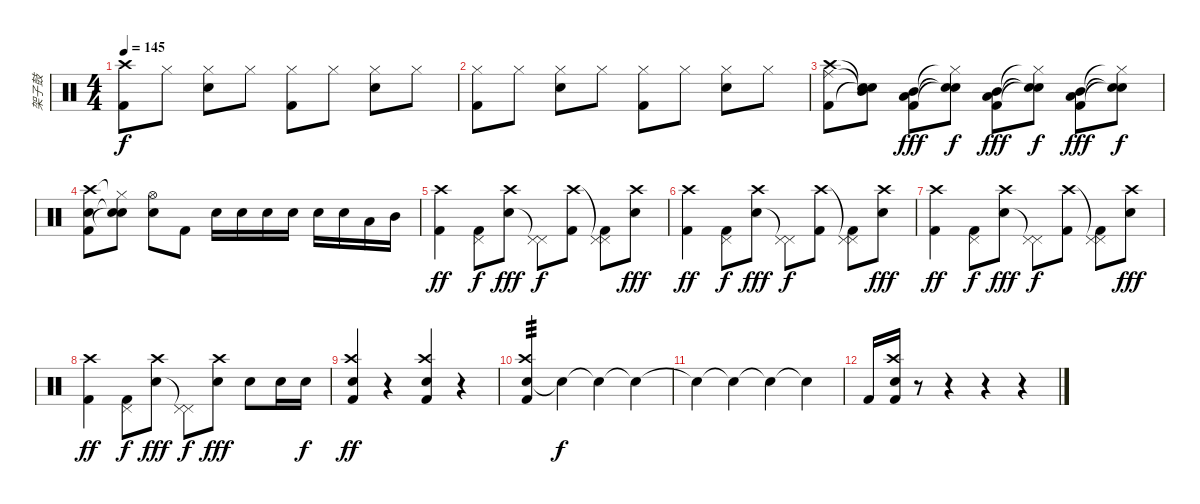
\track ("架子鼓" "架子鼓") {instrument percussion}
\staff {score}
\articulation defaults
\ts (4 4)
\tempo 145
\clef neutral
\ks c
("Kick (hit) 2" "Crash high (hit)").8{dy f} "Hi-Hat (closed)".8 ("Snare (hit) 2" "Hi-Hat (closed)").8 "Hi-Hat (closed)".8 ("Kick (hit) 2" "Hi-Hat (closed)").8 "Hi-Hat (closed)".8 ("Snare (hit) 2" "Hi-Hat (closed)").8 "Hi-Hat (closed)".8 |
("Kick (hit) 2" "Hi-Hat (closed)").8 "Hi-Hat (closed)".8 ("Snare (hit) 2" "Hi-Hat (closed)").8 "Hi-Hat (closed)".8 ("Kick (hit) 2" "Hi-Hat (closed)").8 "Hi-Hat (closed)".8 ("Snare (hit) 2" "Hi-Hat (closed)").8 "Hi-Hat (closed)".8 |
("Kick (hit) 2" "Ride (middle)" "Crash high (hit)").8 ("Snare (hit)"{t} "Mid Tom (hit)"{t} "Snare (hit)"{t}).8 ("Kick (hit) 2" "Mid Tom (hit)" "Low Tom (hit)").8{dy fff} ("Snare (hit)"{t} "Hi-Hat (closed)"{t} "Snare (hit)"{t}).8{dy f} ("Kick (hit) 2" "Mid Tom (hit)" "Low Tom (hit)").8{dy fff} ("Snare (hit)"{t} "Hi-Hat (closed)"{t} "Snare (hit)"{t}).8{dy f} ("Kick (hit) 2" "Mid Tom (hit)" "Low Tom (hit)").8{dy fff} ("Snare (hit)"{t} "Hi-Hat (closed)"{t} "Snare (hit)"{t}).8{dy f} |
("Kick (hit) 2" "Crash high (hit)" "Snare (hit) 2").8 ("Snare (hit)"{t} "Hi-Hat (closed)"{t} "Snare (hit)"{t}).8 ("Hi-Hat (open)" "Snare (hit) 2").8 "Kick (hit) 2".8 "Snare (hit) 2".16 "Snare (hit) 2".16 "Snare (hit) 2".16 "Snare (hit) 2".16 "Snare (hit) 2".16 "Snare (hit) 2".16 "Low Tom (hit)".16 "Mid Tom (hit)".16 |
("Kick (hit) 2" "Crash high (hit)").4{dy ff} ("Kick (hit) 2" "Pedal Hi-Hat (hit)").8{dy f} ("Snare (hit) 2" "Crash high (hit)").8{dy fff} ("Pedal Hi-Hat (hit)"{t} "Pedal Hi-Hat (hit)").8{dy f} ("Kick (hit) 2" "Crash high (hit)").8 ("Kick (hit) 2" "Pedal Hi-Hat (hit)"{t} "Pedal Hi-Hat (hit)").8 ("Snare (hit) 2" "Crash high (hit)").8{dy fff} |
("Kick (hit) 2" "Crash high (hit)").4{dy ff} ("Kick (hit) 2" "Pedal Hi-Hat (hit)").8{dy f} ("Snare (hit) 2" "Crash high (hit)").8{dy fff} ("Pedal Hi-Hat (hit)"{t} "Pedal Hi-Hat (hit)").8{dy f} ("Kick (hit) 2" "Crash high (hit)").8 ("Kick (hit) 2" "Pedal Hi-Hat (hit)"{t} "Pedal Hi-Hat (hit)").8 ("Snare (hit) 2" "Crash high (hit)").8{dy fff} |
("Kick (hit) 2" "Crash high (hit)").4{dy ff} ("Kick (hit) 2" "Pedal Hi-Hat (hit)").8{dy f} ("Snare (hit) 2" "Crash high (hit)").8{dy fff} ("Pedal Hi-Hat (hit)"{t} "Pedal Hi-Hat (hit)").8{dy f} ("Kick (hit) 2" "Crash high (hit)").8 ("Kick (hit) 2" "Pedal Hi-Hat (hit)"{t} "Pedal Hi-Hat (hit)").8 ("Snare (hit) 2" "Crash high (hit)").8{dy fff} |
("Kick (hit) 2" "Crash high (hit)").4{dy ff} ("Kick (hit) 2" "Pedal Hi-Hat (hit)").8{dy f} ("Snare (hit) 2" "Crash high (hit)").8{dy fff} ("Pedal Hi-Hat (hit)"{t} "Pedal Hi-Hat (hit)").8{dy f} ("Snare (hit) 2" "Crash high (hit)").8{dy fff} "Snare (hit) 2".8 "Snare (hit) 2".16 "Snare (hit) 2".16{dy f} |
("Snare (hit) 2" "Kick (hit) 2" "Crash high (hit)").4{dy ff} r.4 ("Snare (hit) 2" "Kick (hit) 2" "Crash high (hit)").4 r.4 |
("Snare (hit) 2" "Kick (hit) 2" "Crash high (hit)").4{tp 3} "Snare (hit)"{t}.4{dy f} "Snare (hit)"{t}.4 "Snare (hit)"{t}.4 |
"Snare (hit)"{t}.4 "Snare (hit)"{t}.4 "Snare (hit)"{t}.4 "Snare (hit)"{t}.4 |
"Kick (hit) 2".16 ("Kick (hit) 2" "Crash high (hit)" "Snare (hit) 2").16 r.8 r.4 r.4 r.4
